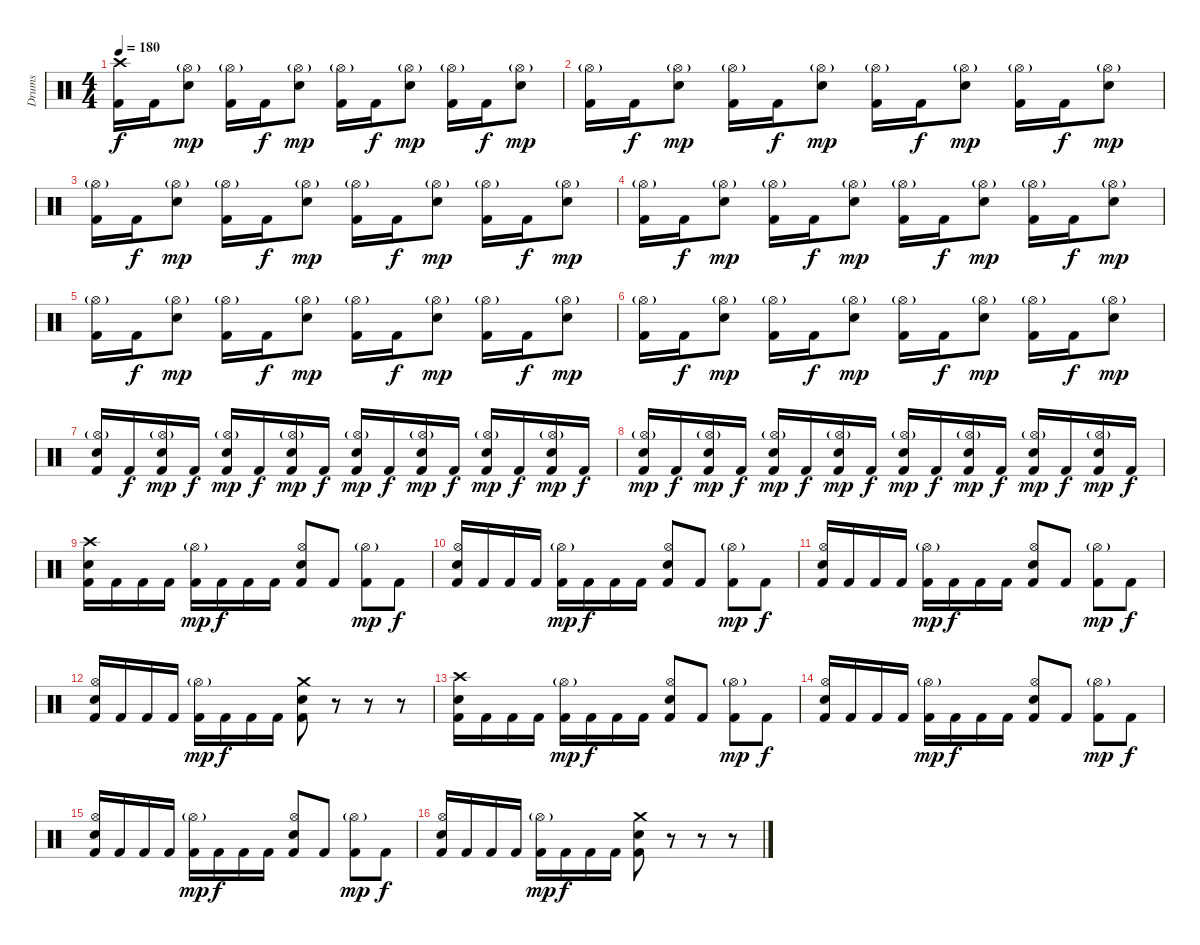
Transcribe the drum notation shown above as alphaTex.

\track ("Drums" "Drums") {instrument percussion}
\staff {score}
\articulation defaults
\ts (4 4)
\tempo 180
\clef neutral
\ks c
("Crash high (hit)" "Kick (hit) 2").16{dy f} "Kick (hit) 2".16 ("Hi-Hat (open)"{g} "Electric Snare (hit)").8{dy mp} ("Hi-Hat (open)"{g} "Kick (hit) 2").16 "Kick (hit) 2".16{dy f} ("Hi-Hat (open)"{g} "Electric Snare (hit)").8{dy mp} ("Hi-Hat (open)"{g} "Kick (hit) 2").16 "Kick (hit) 2".16{dy f} ("Hi-Hat (open)"{g} "Electric Snare (hit)").8{dy mp} ("Hi-Hat (open)"{g} "Kick (hit) 2").16 "Kick (hit) 2".16{dy f} ("Hi-Hat (open)"{g} "Electric Snare (hit)").8{dy mp} |
("Hi-Hat (open)"{g} "Kick (hit) 2").16 "Kick (hit) 2".16{dy f} ("Hi-Hat (open)"{g} "Electric Snare (hit)").8{dy mp} ("Hi-Hat (open)"{g} "Kick (hit) 2").16 "Kick (hit) 2".16{dy f} ("Hi-Hat (open)"{g} "Electric Snare (hit)").8{dy mp} ("Hi-Hat (open)"{g} "Kick (hit) 2").16 "Kick (hit) 2".16{dy f} ("Hi-Hat (open)"{g} "Electric Snare (hit)").8{dy mp} ("Hi-Hat (open)"{g} "Kick (hit) 2").16 "Kick (hit) 2".16{dy f} ("Hi-Hat (open)"{g} "Electric Snare (hit)").8{dy mp} |
("Hi-Hat (open)"{g} "Kick (hit) 2").16 "Kick (hit) 2".16{dy f} ("Hi-Hat (open)"{g} "Electric Snare (hit)").8{dy mp} ("Hi-Hat (open)"{g} "Kick (hit) 2").16 "Kick (hit) 2".16{dy f} ("Hi-Hat (open)"{g} "Electric Snare (hit)").8{dy mp} ("Hi-Hat (open)"{g} "Kick (hit) 2").16 "Kick (hit) 2".16{dy f} ("Hi-Hat (open)"{g} "Electric Snare (hit)").8{dy mp} ("Hi-Hat (open)"{g} "Kick (hit) 2").16 "Kick (hit) 2".16{dy f} ("Hi-Hat (open)"{g} "Electric Snare (hit)").8{dy mp} |
("Hi-Hat (open)"{g} "Kick (hit) 2").16 "Kick (hit) 2".16{dy f} ("Hi-Hat (open)"{g} "Electric Snare (hit)").8{dy mp} ("Hi-Hat (open)"{g} "Kick (hit) 2").16 "Kick (hit) 2".16{dy f} ("Hi-Hat (open)"{g} "Electric Snare (hit)").8{dy mp} ("Hi-Hat (open)"{g} "Kick (hit) 2").16 "Kick (hit) 2".16{dy f} ("Hi-Hat (open)"{g} "Electric Snare (hit)").8{dy mp} ("Hi-Hat (open)"{g} "Kick (hit) 2").16 "Kick (hit) 2".16{dy f} ("Hi-Hat (open)"{g} "Electric Snare (hit)").8{dy mp} |
("Hi-Hat (open)"{g} "Kick (hit) 2").16 "Kick (hit) 2".16{dy f} ("Hi-Hat (open)"{g} "Electric Snare (hit)").8{dy mp} ("Hi-Hat (open)"{g} "Kick (hit) 2").16 "Kick (hit) 2".16{dy f} ("Hi-Hat (open)"{g} "Electric Snare (hit)").8{dy mp} ("Hi-Hat (open)"{g} "Kick (hit) 2").16 "Kick (hit) 2".16{dy f} ("Hi-Hat (open)"{g} "Electric Snare (hit)").8{dy mp} ("Hi-Hat (open)"{g} "Kick (hit) 2").16 "Kick (hit) 2".16{dy f} ("Hi-Hat (open)"{g} "Electric Snare (hit)").8{dy mp} |
("Hi-Hat (open)"{g} "Kick (hit) 2").16 "Kick (hit) 2".16{dy f} ("Hi-Hat (open)"{g} "Electric Snare (hit)").8{dy mp} ("Hi-Hat (open)"{g} "Kick (hit) 2").16 "Kick (hit) 2".16{dy f} ("Hi-Hat (open)"{g} "Electric Snare (hit)").8{dy mp} ("Hi-Hat (open)"{g} "Kick (hit) 2").16 "Kick (hit) 2".16{dy f} ("Hi-Hat (open)"{g} "Electric Snare (hit)").8{dy mp} ("Hi-Hat (open)"{g} "Kick (hit) 2").16 "Kick (hit) 2".16{dy f} ("Hi-Hat (open)"{g} "Electric Snare (hit)").8{dy mp} |
("Hi-Hat (open)"{g} "Electric Snare (hit)" "Kick (hit) 2").16 "Kick (hit) 2".16{dy f} ("Hi-Hat (open)"{g} "Electric Snare (hit)" "Kick (hit) 2").16{dy mp} "Kick (hit) 2".16{dy f} ("Hi-Hat (open)"{g} "Electric Snare (hit)" "Kick (hit) 2").16{dy mp} "Kick (hit) 2".16{dy f} ("Hi-Hat (open)"{g} "Electric Snare (hit)" "Kick (hit) 2").16{dy mp} "Kick (hit) 2".16{dy f} ("Hi-Hat (open)"{g} "Electric Snare (hit)" "Kick (hit) 2").16{dy mp} "Kick (hit) 2".16{dy f} ("Hi-Hat (open)"{g} "Electric Snare (hit)" "Kick (hit) 2").16{dy mp} "Kick (hit) 2".16{dy f} ("Hi-Hat (open)"{g} "Electric Snare (hit)" "Kick (hit) 2").16{dy mp} "Kick (hit) 2".16{dy f} ("Hi-Hat (open)"{g} "Electric Snare (hit)" "Kick (hit) 2").16{dy mp} "Kick (hit) 2".16{dy f} |
("Hi-Hat (open)"{g} "Electric Snare (hit)" "Kick (hit) 2").16{dy mp} "Kick (hit) 2".16{dy f} ("Hi-Hat (open)"{g} "Electric Snare (hit)" "Kick (hit) 2").16{dy mp} "Kick (hit) 2".16{dy f} ("Hi-Hat (open)"{g} "Electric Snare (hit)" "Kick (hit) 2").16{dy mp} "Kick (hit) 2".16{dy f} ("Hi-Hat (open)"{g} "Electric Snare (hit)" "Kick (hit) 2").16{dy mp} "Kick (hit) 2".16{dy f} ("Hi-Hat (open)"{g} "Electric Snare (hit)" "Kick (hit) 2").16{dy mp} "Kick (hit) 2".16{dy f} ("Hi-Hat (open)"{g} "Electric Snare (hit)" "Kick (hit) 2").16{dy mp} "Kick (hit) 2".16{dy f} ("Hi-Hat (open)"{g} "Electric Snare (hit)" "Kick (hit) 2").16{dy mp} "Kick (hit) 2".16{dy f} ("Hi-Hat (open)"{g} "Electric Snare (hit)" "Kick (hit) 2").16{dy mp} "Kick (hit) 2".16{dy f} |
("Crash high (hit)" "Electric Snare (hit)" "Kick (hit) 2").16 "Kick (hit) 2".16 "Kick (hit) 2".16 "Kick (hit) 2".16 ("Hi-Hat (open)"{g} "Kick (hit) 2").16{dy mp} "Kick (hit) 2".16{dy f} "Kick (hit) 2".16 "Kick (hit) 2".16 ("Hi-Hat (open)" "Electric Snare (hit)" "Kick (hit) 2").8 "Kick (hit) 2".8 ("Hi-Hat (open)"{g} "Kick (hit) 2").8{dy mp} "Kick (hit) 2".8{dy f} |
("Hi-Hat (open)" "Electric Snare (hit)" "Kick (hit) 2").16 "Kick (hit) 2".16 "Kick (hit) 2".16 "Kick (hit) 2".16 ("Hi-Hat (open)"{g} "Kick (hit) 2").16{dy mp} "Kick (hit) 2".16{dy f} "Kick (hit) 2".16 "Kick (hit) 2".16 ("Hi-Hat (open)" "Electric Snare (hit)" "Kick (hit) 2").8 "Kick (hit) 2".8 ("Hi-Hat (open)"{g} "Kick (hit) 2").8{dy mp} "Kick (hit) 2".8{dy f} |
("Hi-Hat (open)" "Electric Snare (hit)" "Kick (hit) 2").16 "Kick (hit) 2".16 "Kick (hit) 2".16 "Kick (hit) 2".16 ("Hi-Hat (open)"{g} "Kick (hit) 2").16{dy mp} "Kick (hit) 2".16{dy f} "Kick (hit) 2".16 "Kick (hit) 2".16 ("Hi-Hat (open)" "Electric Snare (hit)" "Kick (hit) 2").8 "Kick (hit) 2".8 ("Hi-Hat (open)"{g} "Kick (hit) 2").8{dy mp} "Kick (hit) 2".8{dy f} |
("Hi-Hat (open)" "Electric Snare (hit)" "Kick (hit) 2").16 "Kick (hit) 2".16 "Kick (hit) 2".16 "Kick (hit) 2".16 ("Hi-Hat (open)"{g} "Kick (hit) 2").16{dy mp} "Kick (hit) 2".16{dy f} "Kick (hit) 2".16 "Kick (hit) 2".16 ("Crash medium (hit)" "Electric Snare (hit)" "Kick (hit) 2").8 r.8 r.8 r.8 |
("Crash high (hit)" "Electric Snare (hit)" "Kick (hit) 2").16 "Kick (hit) 2".16 "Kick (hit) 2".16 "Kick (hit) 2".16 ("Hi-Hat (open)"{g} "Kick (hit) 2").16{dy mp} "Kick (hit) 2".16{dy f} "Kick (hit) 2".16 "Kick (hit) 2".16 ("Hi-Hat (open)" "Electric Snare (hit)" "Kick (hit) 2").8 "Kick (hit) 2".8 ("Hi-Hat (open)"{g} "Kick (hit) 2").8{dy mp} "Kick (hit) 2".8{dy f} |
("Hi-Hat (open)" "Electric Snare (hit)" "Kick (hit) 2").16 "Kick (hit) 2".16 "Kick (hit) 2".16 "Kick (hit) 2".16 ("Hi-Hat (open)"{g} "Kick (hit) 2").16{dy mp} "Kick (hit) 2".16{dy f} "Kick (hit) 2".16 "Kick (hit) 2".16 ("Hi-Hat (open)" "Electric Snare (hit)" "Kick (hit) 2").8 "Kick (hit) 2".8 ("Hi-Hat (open)"{g} "Kick (hit) 2").8{dy mp} "Kick (hit) 2".8{dy f} |
("Hi-Hat (open)" "Electric Snare (hit)" "Kick (hit) 2").16 "Kick (hit) 2".16 "Kick (hit) 2".16 "Kick (hit) 2".16 ("Hi-Hat (open)"{g} "Kick (hit) 2").16{dy mp} "Kick (hit) 2".16{dy f} "Kick (hit) 2".16 "Kick (hit) 2".16 ("Hi-Hat (open)" "Electric Snare (hit)" "Kick (hit) 2").8 "Kick (hit) 2".8 ("Hi-Hat (open)"{g} "Kick (hit) 2").8{dy mp} "Kick (hit) 2".8{dy f} |
("Hi-Hat (open)" "Electric Snare (hit)" "Kick (hit) 2").16 "Kick (hit) 2".16 "Kick (hit) 2".16 "Kick (hit) 2".16 ("Hi-Hat (open)"{g} "Kick (hit) 2").16{dy mp} "Kick (hit) 2".16{dy f} "Kick (hit) 2".16 "Kick (hit) 2".16 ("Crash medium (hit)" "Electric Snare (hit)" "Kick (hit) 2").8 r.8 r.8 r.8
